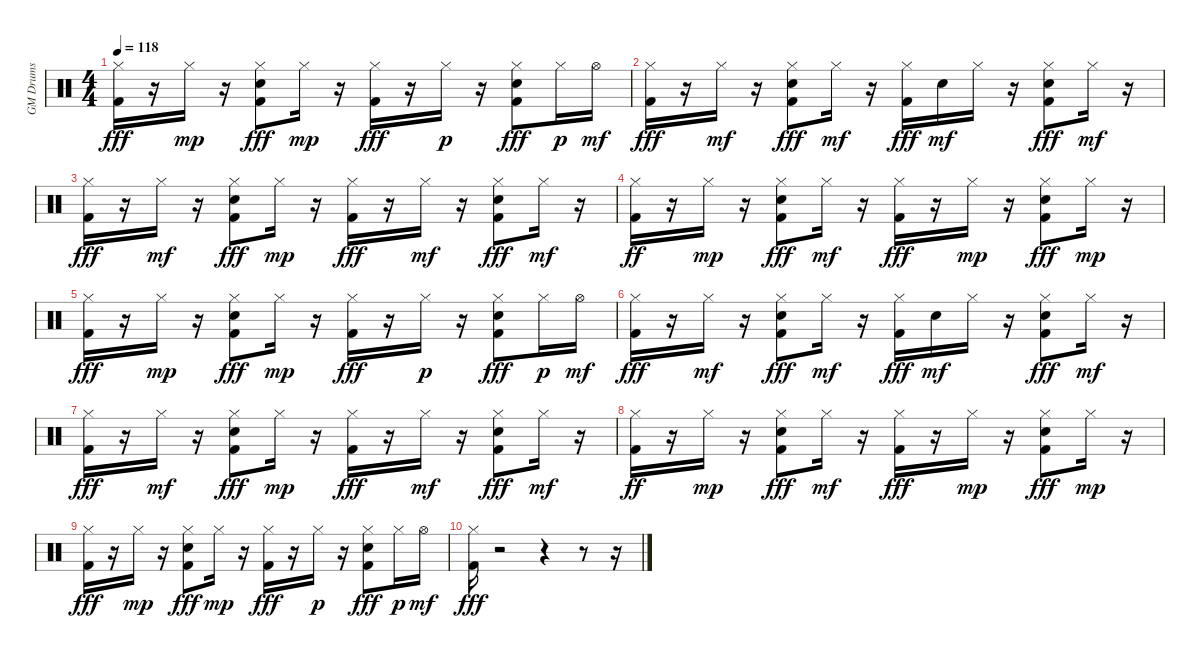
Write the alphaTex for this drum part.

\track ("GM Drums" "GM Drums") {instrument percussion}
\staff {score}
\articulation defaults
\ts (4 4)
\tempo 118
\clef neutral
\ks c
("Hi-Hat (closed)" "Kick (hit) 2").16{dy fff} r.16 "Hi-Hat (closed)".16{dy mp} r.16 ("Hi-Hat (closed)" "Kick (hit) 2" "Electric Snare (hit)").8{dy fff} "Hi-Hat (closed)".16{dy mp} r.16 ("Hi-Hat (closed)" "Kick (hit) 2").16{dy fff} r.16 "Hi-Hat (closed)".16{dy p} r.16 ("Hi-Hat (closed)" "Kick (hit) 2" "Electric Snare (hit)").8{dy fff} "Hi-Hat (closed)".16{dy p} "Hi-Hat (open)".16{dy mf} |
("Kick (hit) 2" "Hi-Hat (closed)").16{dy fff} r.16 "Hi-Hat (closed)".16{dy mf} r.16 ("Hi-Hat (closed)" "Kick (hit) 2" "Electric Snare (hit)").8{dy fff} "Hi-Hat (closed)".16{dy mf} r.16 ("Hi-Hat (closed)" "Kick (hit) 2").16{dy fff} "Snare (hit)".16{dy mf} "Hi-Hat (closed)".16 r.16 ("Hi-Hat (closed)" "Kick (hit) 2" "Electric Snare (hit)").8{dy fff} "Hi-Hat (closed)".16{dy mf} r.16 |
("Hi-Hat (closed)" "Kick (hit) 2").16{dy fff} r.16 "Hi-Hat (closed)".16{dy mf} r.16 ("Hi-Hat (closed)" "Kick (hit) 2" "Electric Snare (hit)").8{dy fff} "Hi-Hat (closed)".16{dy mp} r.16 ("Hi-Hat (closed)" "Kick (hit) 2").16{dy fff} r.16 "Hi-Hat (closed)".16{dy mf} r.16 ("Hi-Hat (closed)" "Kick (hit) 2" "Electric Snare (hit)").8{dy fff} "Hi-Hat (closed)".16{dy mf} r.16 |
("Hi-Hat (closed)" "Kick (hit) 2").16{dy ff} r.16 "Hi-Hat (closed)".16{dy mp} r.16 ("Hi-Hat (closed)" "Kick (hit) 2" "Electric Snare (hit)").8{dy fff} "Hi-Hat (closed)".16{dy mf} r.16 ("Hi-Hat (closed)" "Kick (hit) 2").16{dy fff} r.16 "Hi-Hat (closed)".16{dy mp} r.16 ("Hi-Hat (closed)" "Kick (hit) 2" "Electric Snare (hit)").8{dy fff} "Hi-Hat (closed)".16{dy mp} r.16 |
("Hi-Hat (closed)" "Kick (hit) 2").16{dy fff} r.16 "Hi-Hat (closed)".16{dy mp} r.16 ("Hi-Hat (closed)" "Kick (hit) 2" "Electric Snare (hit)").8{dy fff} "Hi-Hat (closed)".16{dy mp} r.16 ("Hi-Hat (closed)" "Kick (hit) 2").16{dy fff} r.16 "Hi-Hat (closed)".16{dy p} r.16 ("Hi-Hat (closed)" "Kick (hit) 2" "Electric Snare (hit)").8{dy fff} "Hi-Hat (closed)".16{dy p} "Hi-Hat (open)".16{dy mf} |
("Kick (hit) 2" "Hi-Hat (closed)").16{dy fff} r.16 "Hi-Hat (closed)".16{dy mf} r.16 ("Hi-Hat (closed)" "Kick (hit) 2" "Electric Snare (hit)").8{dy fff} "Hi-Hat (closed)".16{dy mf} r.16 ("Hi-Hat (closed)" "Kick (hit) 2").16{dy fff} "Snare (hit)".16{dy mf} "Hi-Hat (closed)".16 r.16 ("Hi-Hat (closed)" "Kick (hit) 2" "Electric Snare (hit)").8{dy fff} "Hi-Hat (closed)".16{dy mf} r.16 |
("Hi-Hat (closed)" "Kick (hit) 2").16{dy fff} r.16 "Hi-Hat (closed)".16{dy mf} r.16 ("Hi-Hat (closed)" "Kick (hit) 2" "Electric Snare (hit)").8{dy fff} "Hi-Hat (closed)".16{dy mp} r.16 ("Hi-Hat (closed)" "Kick (hit) 2").16{dy fff} r.16 "Hi-Hat (closed)".16{dy mf} r.16 ("Hi-Hat (closed)" "Kick (hit) 2" "Electric Snare (hit)").8{dy fff} "Hi-Hat (closed)".16{dy mf} r.16 |
("Hi-Hat (closed)" "Kick (hit) 2").16{dy ff} r.16 "Hi-Hat (closed)".16{dy mp} r.16 ("Hi-Hat (closed)" "Kick (hit) 2" "Electric Snare (hit)").8{dy fff} "Hi-Hat (closed)".16{dy mf} r.16 ("Hi-Hat (closed)" "Kick (hit) 2").16{dy fff} r.16 "Hi-Hat (closed)".16{dy mp} r.16 ("Hi-Hat (closed)" "Kick (hit) 2" "Electric Snare (hit)").8{dy fff} "Hi-Hat (closed)".16{dy mp} r.16 |
("Hi-Hat (closed)" "Kick (hit) 2").16{dy fff} r.16 "Hi-Hat (closed)".16{dy mp} r.16 ("Hi-Hat (closed)" "Kick (hit) 2" "Electric Snare (hit)").8{dy fff} "Hi-Hat (closed)".16{dy mp} r.16 ("Hi-Hat (closed)" "Kick (hit) 2").16{dy fff} r.16 "Hi-Hat (closed)".16{dy p} r.16 ("Hi-Hat (closed)" "Kick (hit) 2" "Electric Snare (hit)").8{dy fff} "Hi-Hat (closed)".16{dy p} "Hi-Hat (open)".16{dy mf} |
("Kick (hit) 2" "Hi-Hat (closed)").16{dy fff} r.2 r.4 r.8 r.16
